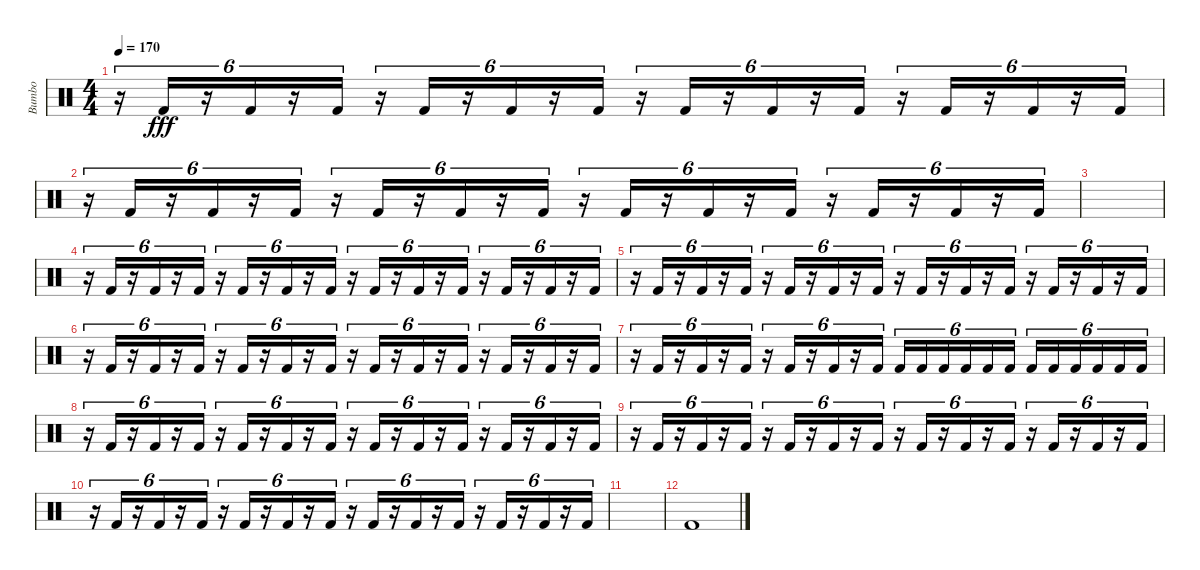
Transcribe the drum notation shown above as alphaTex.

\track ("Bumbo" "Bumbo") {instrument percussion}
\staff {score}
\articulation defaults
\ts (4 4)
\tempo 170
\clef neutral
\ks c
r.16{tu (6 4) dy fff} "Kick (hit) 2".16{tu (6 4)} r.16{tu (6 4)} "Kick (hit) 2".16{tu (6 4)} r.16{tu (6 4)} "Kick (hit) 2".16{tu (6 4)} r.16{tu (6 4)} "Kick (hit) 2".16{tu (6 4)} r.16{tu (6 4)} "Kick (hit) 2".16{tu (6 4)} r.16{tu (6 4)} "Kick (hit) 2".16{tu (6 4)} r.16{tu (6 4)} "Kick (hit) 2".16{tu (6 4)} r.16{tu (6 4)} "Kick (hit) 2".16{tu (6 4)} r.16{tu (6 4)} "Kick (hit) 2".16{tu (6 4)} r.16{tu (6 4)} "Kick (hit) 2".16{tu (6 4)} r.16{tu (6 4)} "Kick (hit) 2".16{tu (6 4)} r.16{tu (6 4)} "Kick (hit) 2".16{tu (6 4)} |
r.16{tu (6 4)} "Kick (hit) 2".16{tu (6 4)} r.16{tu (6 4)} "Kick (hit) 2".16{tu (6 4)} r.16{tu (6 4)} "Kick (hit) 2".16{tu (6 4)} r.16{tu (6 4)} "Kick (hit) 2".16{tu (6 4)} r.16{tu (6 4)} "Kick (hit) 2".16{tu (6 4)} r.16{tu (6 4)} "Kick (hit) 2".16{tu (6 4)} r.16{tu (6 4)} "Kick (hit) 2".16{tu (6 4)} r.16{tu (6 4)} "Kick (hit) 2".16{tu (6 4)} r.16{tu (6 4)} "Kick (hit) 2".16{tu (6 4)} r.16{tu (6 4)} "Kick (hit) 2".16{tu (6 4)} r.16{tu (6 4)} "Kick (hit) 2".16{tu (6 4)} r.16{tu (6 4)} "Kick (hit) 2".16{tu (6 4)} |
|
r.16{tu (6 4)} "Kick (hit) 2".16{tu (6 4)} r.16{tu (6 4)} "Kick (hit) 2".16{tu (6 4)} r.16{tu (6 4)} "Kick (hit) 2".16{tu (6 4)} r.16{tu (6 4)} "Kick (hit) 2".16{tu (6 4)} r.16{tu (6 4)} "Kick (hit) 2".16{tu (6 4)} r.16{tu (6 4)} "Kick (hit) 2".16{tu (6 4)} r.16{tu (6 4)} "Kick (hit) 2".16{tu (6 4)} r.16{tu (6 4)} "Kick (hit) 2".16{tu (6 4)} r.16{tu (6 4)} "Kick (hit) 2".16{tu (6 4)} r.16{tu (6 4)} "Kick (hit) 2".16{tu (6 4)} r.16{tu (6 4)} "Kick (hit) 2".16{tu (6 4)} r.16{tu (6 4)} "Kick (hit) 2".16{tu (6 4)} |
r.16{tu (6 4)} "Kick (hit) 2".16{tu (6 4)} r.16{tu (6 4)} "Kick (hit) 2".16{tu (6 4)} r.16{tu (6 4)} "Kick (hit) 2".16{tu (6 4)} r.16{tu (6 4)} "Kick (hit) 2".16{tu (6 4)} r.16{tu (6 4)} "Kick (hit) 2".16{tu (6 4)} r.16{tu (6 4)} "Kick (hit) 2".16{tu (6 4)} r.16{tu (6 4)} "Kick (hit) 2".16{tu (6 4)} r.16{tu (6 4)} "Kick (hit) 2".16{tu (6 4)} r.16{tu (6 4)} "Kick (hit) 2".16{tu (6 4)} r.16{tu (6 4)} "Kick (hit) 2".16{tu (6 4)} r.16{tu (6 4)} "Kick (hit) 2".16{tu (6 4)} r.16{tu (6 4)} "Kick (hit) 2".16{tu (6 4)} |
r.16{tu (6 4)} "Kick (hit) 2".16{tu (6 4)} r.16{tu (6 4)} "Kick (hit) 2".16{tu (6 4)} r.16{tu (6 4)} "Kick (hit) 2".16{tu (6 4)} r.16{tu (6 4)} "Kick (hit) 2".16{tu (6 4)} r.16{tu (6 4)} "Kick (hit) 2".16{tu (6 4)} r.16{tu (6 4)} "Kick (hit) 2".16{tu (6 4)} r.16{tu (6 4)} "Kick (hit) 2".16{tu (6 4)} r.16{tu (6 4)} "Kick (hit) 2".16{tu (6 4)} r.16{tu (6 4)} "Kick (hit) 2".16{tu (6 4)} r.16{tu (6 4)} "Kick (hit) 2".16{tu (6 4)} r.16{tu (6 4)} "Kick (hit) 2".16{tu (6 4)} r.16{tu (6 4)} "Kick (hit) 2".16{tu (6 4)} |
r.16{tu (6 4)} "Kick (hit) 2".16{tu (6 4)} r.16{tu (6 4)} "Kick (hit) 2".16{tu (6 4)} r.16{tu (6 4)} "Kick (hit) 2".16{tu (6 4)} r.16{tu (6 4)} "Kick (hit) 2".16{tu (6 4)} r.16{tu (6 4)} "Kick (hit) 2".16{tu (6 4)} r.16{tu (6 4)} "Kick (hit) 2".16{tu (6 4)} "Kick (hit) 2".16{tu (6 4)} "Kick (hit) 2".16{tu (6 4)} "Kick (hit) 2".16{tu (6 4)} "Kick (hit) 2".16{tu (6 4)} "Kick (hit) 2".16{tu (6 4)} "Kick (hit) 2".16{tu (6 4)} "Kick (hit) 2".16{tu (6 4)} "Kick (hit) 2".16{tu (6 4)} "Kick (hit) 2".16{tu (6 4)} "Kick (hit) 2".16{tu (6 4)} "Kick (hit) 2".16{tu (6 4)} "Kick (hit) 2".16{tu (6 4)} |
r.16{tu (6 4)} "Kick (hit) 2".16{tu (6 4)} r.16{tu (6 4)} "Kick (hit) 2".16{tu (6 4)} r.16{tu (6 4)} "Kick (hit) 2".16{tu (6 4)} r.16{tu (6 4)} "Kick (hit) 2".16{tu (6 4)} r.16{tu (6 4)} "Kick (hit) 2".16{tu (6 4)} r.16{tu (6 4)} "Kick (hit) 2".16{tu (6 4)} r.16{tu (6 4)} "Kick (hit) 2".16{tu (6 4)} r.16{tu (6 4)} "Kick (hit) 2".16{tu (6 4)} r.16{tu (6 4)} "Kick (hit) 2".16{tu (6 4)} r.16{tu (6 4)} "Kick (hit) 2".16{tu (6 4)} r.16{tu (6 4)} "Kick (hit) 2".16{tu (6 4)} r.16{tu (6 4)} "Kick (hit) 2".16{tu (6 4)} |
r.16{tu (6 4)} "Kick (hit) 2".16{tu (6 4)} r.16{tu (6 4)} "Kick (hit) 2".16{tu (6 4)} r.16{tu (6 4)} "Kick (hit) 2".16{tu (6 4)} r.16{tu (6 4)} "Kick (hit) 2".16{tu (6 4)} r.16{tu (6 4)} "Kick (hit) 2".16{tu (6 4)} r.16{tu (6 4)} "Kick (hit) 2".16{tu (6 4)} r.16{tu (6 4)} "Kick (hit) 2".16{tu (6 4)} r.16{tu (6 4)} "Kick (hit) 2".16{tu (6 4)} r.16{tu (6 4)} "Kick (hit) 2".16{tu (6 4)} r.16{tu (6 4)} "Kick (hit) 2".16{tu (6 4)} r.16{tu (6 4)} "Kick (hit) 2".16{tu (6 4)} r.16{tu (6 4)} "Kick (hit) 2".16{tu (6 4)} |
r.16{tu (6 4)} "Kick (hit) 2".16{tu (6 4)} r.16{tu (6 4)} "Kick (hit) 2".16{tu (6 4)} r.16{tu (6 4)} "Kick (hit) 2".16{tu (6 4)} r.16{tu (6 4)} "Kick (hit) 2".16{tu (6 4)} r.16{tu (6 4)} "Kick (hit) 2".16{tu (6 4)} r.16{tu (6 4)} "Kick (hit) 2".16{tu (6 4)} r.16{tu (6 4)} "Kick (hit) 2".16{tu (6 4)} r.16{tu (6 4)} "Kick (hit) 2".16{tu (6 4)} r.16{tu (6 4)} "Kick (hit) 2".16{tu (6 4)} r.16{tu (6 4)} "Kick (hit) 2".16{tu (6 4)} r.16{tu (6 4)} "Kick (hit) 2".16{tu (6 4)} r.16{tu (6 4)} "Kick (hit) 2".16{tu (6 4)} |
|
"Kick (hit) 2".1
